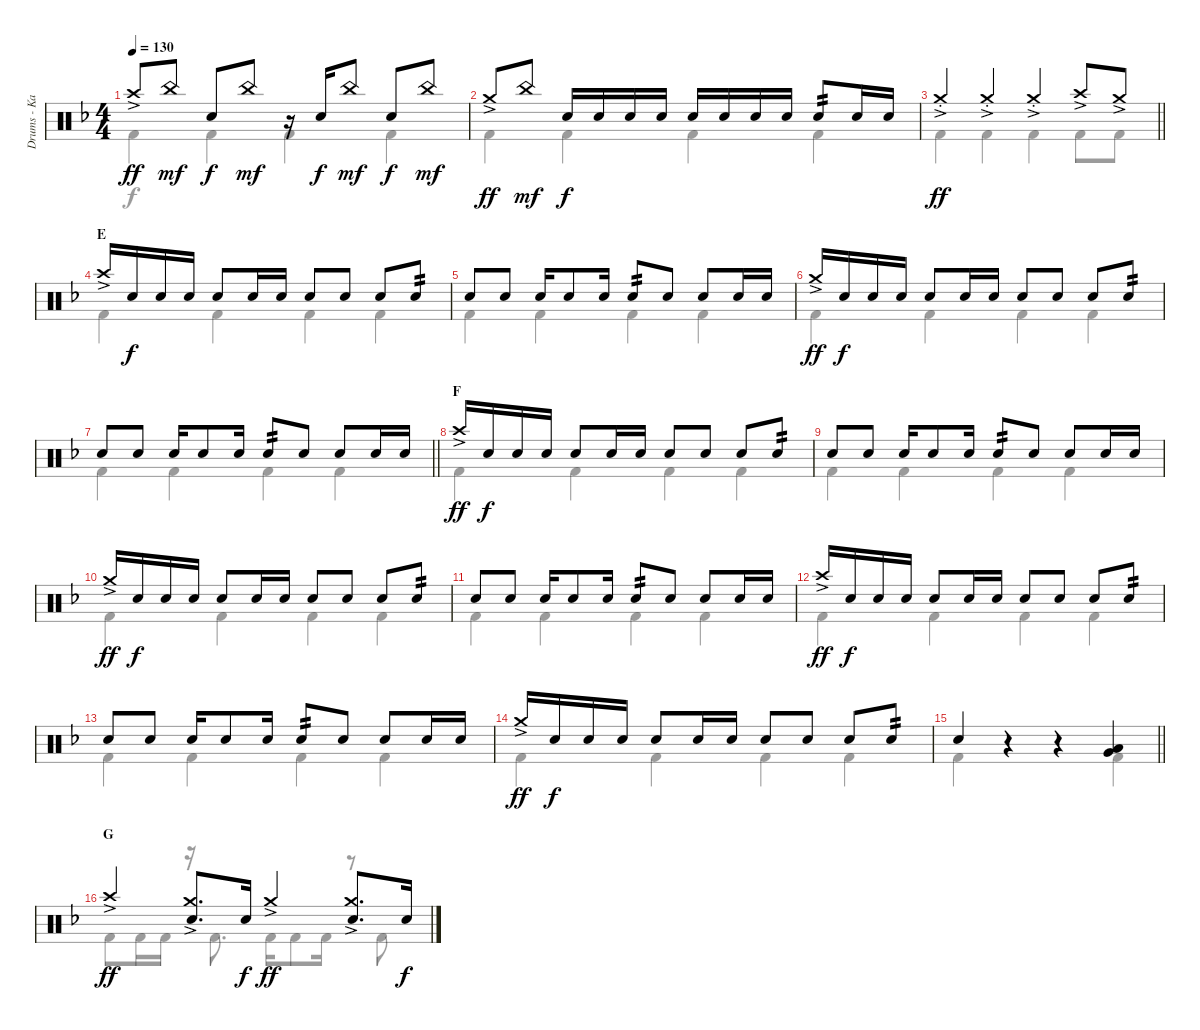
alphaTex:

\track ("Drums - Kai" "Drums - Ka") {instrument percussion}
\staff {score}
\articulation defaults
\voice
\ts (4 4)
\tempo 130
\clef neutral
\ks f "Crash high (hit)"{ac}.8{dy ff} "China (hit)".8{dy mf} "Electric Snare (hit)".8{dy f} "China (hit)".8{dy mf}
r.16 "Electric Snare (hit)".16{dy f} "China (hit)".8{dy mf} "Electric Snare (hit)".8{dy f} "China (hit)".8{dy mf} |
"Crash medium (hit)"{ac}.8{dy ff} "China (hit)".8{dy mf} "Electric Snare (hit)".16{dy f} "Electric Snare (hit)".16 "Electric Snare (hit)".16 "Electric Snare (hit)".16 "Electric Snare (hit)".16 "Electric Snare (hit)".16 "Electric Snare (hit)".16 "Electric Snare (hit)".16 "Electric Snare (hit)".8{tp 2} "Electric Snare (hit)".16 "Electric Snare (hit)".16 |
\barLineRight lightlight "Crash medium (hit)"{ac st}.4{dy ff} "Crash medium (hit)"{ac st}.4 "Crash medium (hit)"{ac st}.4 "Crash high (hit)"{ac}.8 "Crash medium (hit)"{ac}.8
|
\section ("" "E")
"Crash high (hit)"{ac}.16 "Electric Snare (hit)".16{dy f} "Electric Snare (hit)".16 "Electric Snare (hit)".16 "Electric Snare (hit)".8 "Electric Snare (hit)".16 "Electric Snare (hit)".16 "Electric Snare (hit)".8 "Electric Snare (hit)".8 "Electric Snare (hit)".8 "Electric Snare (hit)".8{tp 2} |
"Electric Snare (hit)".8 "Electric Snare (hit)".8 "Electric Snare (hit)".16 "Electric Snare (hit)".8 "Electric Snare (hit)".16 "Electric Snare (hit)".8{tp 2} "Electric Snare (hit)".8 "Electric Snare (hit)".8 "Electric Snare (hit)".16 "Electric Snare (hit)".16 |
"Crash medium (hit)"{ac}.16{dy ff} "Electric Snare (hit)".16{dy f} "Electric Snare (hit)".16 "Electric Snare (hit)".16 "Electric Snare (hit)".8 "Electric Snare (hit)".16 "Electric Snare (hit)".16 "Electric Snare (hit)".8 "Electric Snare (hit)".8 "Electric Snare (hit)".8 "Electric Snare (hit)".8{tp 2} |
\barLineRight lightlight "Electric Snare (hit)".8 "Electric Snare (hit)".8 "Electric Snare (hit)".16 "Electric Snare (hit)".8 "Electric Snare (hit)".16 "Electric Snare (hit)".8{tp 2} "Electric Snare (hit)".8 "Electric Snare (hit)".8 "Electric Snare (hit)".16 "Electric Snare (hit)".16
|
\section ("" "F")
"Crash high (hit)"{ac}.16{dy ff} "Electric Snare (hit)".16{dy f} "Electric Snare (hit)".16 "Electric Snare (hit)".16 "Electric Snare (hit)".8 "Electric Snare (hit)".16 "Electric Snare (hit)".16 "Electric Snare (hit)".8 "Electric Snare (hit)".8 "Electric Snare (hit)".8 "Electric Snare (hit)".8{tp 2} |
"Electric Snare (hit)".8 "Electric Snare (hit)".8 "Electric Snare (hit)".16 "Electric Snare (hit)".8 "Electric Snare (hit)".16 "Electric Snare (hit)".8{tp 2} "Electric Snare (hit)".8 "Electric Snare (hit)".8 "Electric Snare (hit)".16 "Electric Snare (hit)".16 |
"Crash medium (hit)"{ac}.16{dy ff} "Electric Snare (hit)".16{dy f} "Electric Snare (hit)".16 "Electric Snare (hit)".16 "Electric Snare (hit)".8 "Electric Snare (hit)".16 "Electric Snare (hit)".16 "Electric Snare (hit)".8 "Electric Snare (hit)".8 "Electric Snare (hit)".8 "Electric Snare (hit)".8{tp 2} |
"Electric Snare (hit)".8 "Electric Snare (hit)".8 "Electric Snare (hit)".16 "Electric Snare (hit)".8 "Electric Snare (hit)".16 "Electric Snare (hit)".8{tp 2} "Electric Snare (hit)".8 "Electric Snare (hit)".8 "Electric Snare (hit)".16 "Electric Snare (hit)".16 |
"Crash high (hit)"{ac}.16{dy ff} "Electric Snare (hit)".16{dy f} "Electric Snare (hit)".16 "Electric Snare (hit)".16 "Electric Snare (hit)".8 "Electric Snare (hit)".16 "Electric Snare (hit)".16 "Electric Snare (hit)".8 "Electric Snare (hit)".8 "Electric Snare (hit)".8 "Electric Snare (hit)".8{tp 2} |
"Electric Snare (hit)".8 "Electric Snare (hit)".8 "Electric Snare (hit)".16 "Electric Snare (hit)".8 "Electric Snare (hit)".16 "Electric Snare (hit)".8{tp 2} "Electric Snare (hit)".8 "Electric Snare (hit)".8 "Electric Snare (hit)".16 "Electric Snare (hit)".16 |
"Crash medium (hit)"{ac}.16{dy ff} "Electric Snare (hit)".16{dy f} "Electric Snare (hit)".16 "Electric Snare (hit)".16 "Electric Snare (hit)".8 "Electric Snare (hit)".16 "Electric Snare (hit)".16 "Electric Snare (hit)".8 "Electric Snare (hit)".8 "Electric Snare (hit)".8 "Electric Snare (hit)".8{tp 2} |
\barLineRight lightlight "Electric Snare (hit)".4
r.4 r.4 ("Low Tom (hit)" "Very Low Tom (hit)").4 |
\section ("" "G")
"Crash high (hit)"{ac}.4{dy ff} ("Crash medium (hit)"{ac} "Electric Snare (hit)").8{d} "Electric Snare (hit)".16{dy f} "Crash medium (hit)"{ac}.4{dy ff} ("Crash medium (hit)"{ac} "Electric Snare (hit)").8{d} "Electric Snare (hit)".16{dy f}
\voice
\clef neutral
\ottava regular
\simile none
\ks f "Kick (hit) 2".4{dy f} "Kick (hit) 2".4 "Kick (hit) 2".4 "Kick (hit) 2".4
|
"Kick (hit) 2".4 "Kick (hit) 2".4 "Kick (hit) 2".4 "Kick (hit) 2".4 |
\barLineRight lightlight "Kick (hit) 2".4 "Kick (hit) 2".4 "Kick (hit) 2".4 "Kick (hit) 2".8 "Kick (hit) 2".8
|
"Kick (hit) 2".4 "Kick (hit) 2".4 "Kick (hit) 2".4 "Kick (hit) 2".4 |
"Kick (hit) 2".4 "Kick (hit) 2".4 "Kick (hit) 2".4 "Kick (hit) 2".4 |
"Kick (hit) 2".4 "Kick (hit) 2".4 "Kick (hit) 2".4 "Kick (hit) 2".4 |
\barLineRight lightlight "Kick (hit) 2".4 "Kick (hit) 2".4 "Kick (hit) 2".4 "Kick (hit) 2".4
|
"Kick (hit) 2".4 "Kick (hit) 2".4 "Kick (hit) 2".4 "Kick (hit) 2".4 |
"Kick (hit) 2".4 "Kick (hit) 2".4 "Kick (hit) 2".4 "Kick (hit) 2".4 |
"Kick (hit) 2".4 "Kick (hit) 2".4 "Kick (hit) 2".4 "Kick (hit) 2".4 |
"Kick (hit) 2".4 "Kick (hit) 2".4 "Kick (hit) 2".4 "Kick (hit) 2".4 |
"Kick (hit) 2".4 "Kick (hit) 2".4 "Kick (hit) 2".4 "Kick (hit) 2".4 |
"Kick (hit) 2".4 "Kick (hit) 2".4 "Kick (hit) 2".4 "Kick (hit) 2".4 |
"Kick (hit) 2".4 "Kick (hit) 2".4 "Kick (hit) 2".4 "Kick (hit) 2".4 |
\barLineRight lightlight "Kick (hit) 2".4
r.4 r.4 "Kick (hit) 2".4 |
"Kick (hit) 2".8 "Kick (hit) 2".16 "Kick (hit) 2".16 r.16 "Kick (hit) 2".8{d} "Kick (hit) 2".16 "Kick (hit) 2".8 "Kick (hit) 2".16 r.8 "Kick (hit) 2".8
